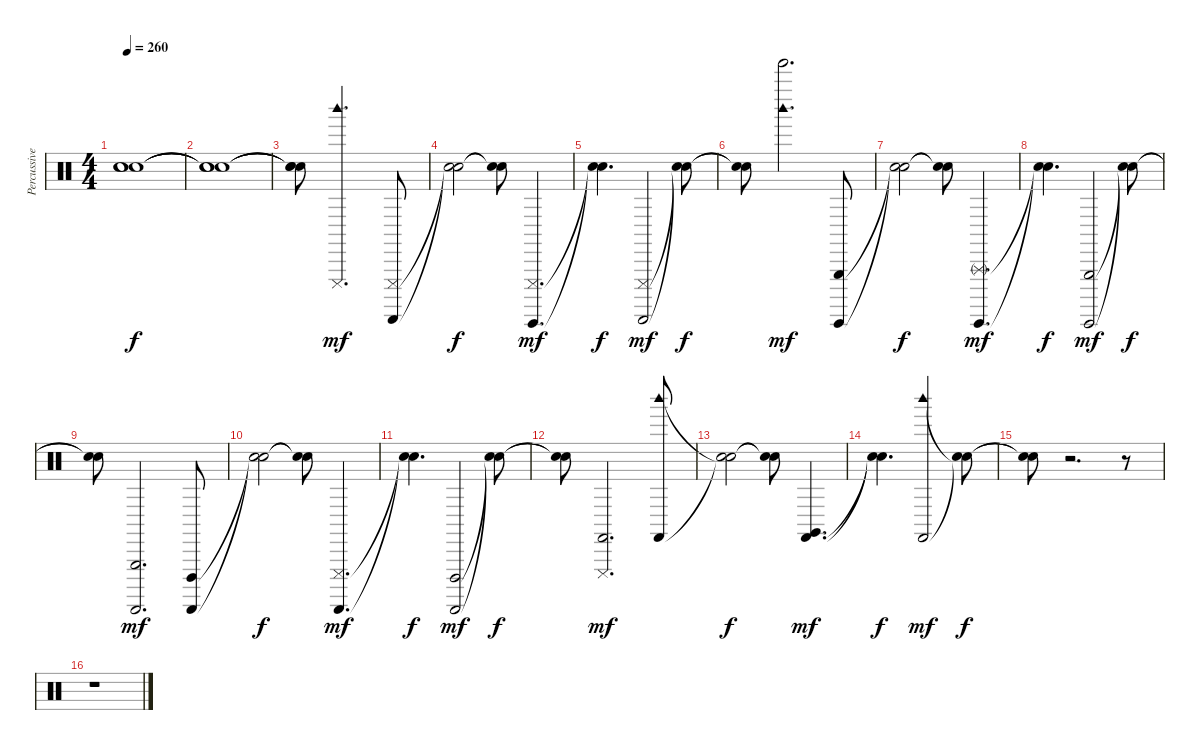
\track ("Percussive Organ" "Percussive") {instrument percussion}
\staff {score}
\articulation defaults
\ts (4 4)
\tempo 260
\clef neutral
\ks c
("Snare (hit)"{t} "Snare (hit)"{t} "Snare (hit)"{t}).1{dy f} |
("Snare (hit)"{t} "Snare (hit)"{t} "Snare (hit)"{t}).1 |
("Snare (hit)"{t} "Snare (hit)"{t} "Snare (hit)"{t}).8 ("Woodblock high (hit)" "Cuica (mute)").2{d dy mf} ("Guiro (scrap-return)" "Cuica (mute)").8 |
("Snare (hit)"{t} "Snare (hit)"{t}).2{dy f} ("Snare (hit)"{t} "Snare (hit)"{t}).8 ("Guiro (hit)" "Cuica (mute)").4{d dy mf} |
("Snare (hit)"{t} "Snare (hit)"{t}).4{d dy f} ("Guiro (scrap-return)" "Cuica (mute)").2{dy mf} ("Snare (hit)"{t} "Snare (hit)"{t}).8{dy f} |
("Snare (hit)"{t} "Snare (hit)"{t}).8 ("Tinkle Bell (hit)" "Woodblock high (hit)").2{d dy mf} ("Triangle (hit)" "Guiro (hit)").8 |
("Snare (hit)"{t} "Snare (hit)"{t}).2{dy f} ("Snare (hit)"{t} "Snare (hit)"{t}).8 ("Triangle (rnute)" "Guiro (hit)").4{d dy mf} |
("Snare (hit)"{t} "Snare (hit)"{t}).4{d dy f} ("Triangle (hit)" "Guiro (hit)").2{dy mf} ("Snare (hit)"{t} "Snare (hit)"{t}).8{dy f} |
("Snare (hit)"{t} "Snare (hit)"{t}).8 ("Triangle (hit)" "Guiro (scrap-return)").2{d dy mf} ("Cuica (open)" "Guiro (scrap-return)").8 |
("Snare (hit)"{t} "Snare (hit)"{t}).2{dy f} ("Snare (hit)"{t} "Snare (hit)"{t}).8 ("Cuica (mute)" "Guiro (scrap-return)").4{d dy mf} |
("Snare (hit)"{t} "Snare (hit)"{t}).4{d dy f} ("Cuica (open)" "Guiro (scrap-return)").2{dy mf} ("Snare (hit)"{t} "Snare (hit)"{t}).8{dy f} |
("Snare (hit)"{t} "Snare (hit)"{t}).8 ("Cuica (mute)" "Castanets (hit)").2{d dy mf} ("Woodblock high (hit)" "Castanets (hit)").8 |
("Snare (hit)"{t} "Snare (hit)"{t}).2{dy f} ("Snare (hit)"{t} "Snare (hit)"{t}).8 ("Claves (hit)" "Castanets (hit)").4{d dy mf} |
("Snare (hit)"{t} "Snare (hit)"{t}).4{d dy f} ("Woodblock high (hit)" "Castanets (hit)").2{dy mf} ("Snare (hit)"{t} "Snare (hit)"{t}).8{dy f} |
("Snare (hit)"{t} "Snare (hit)"{t}).8 r.2{d} r.8 |
r.1
